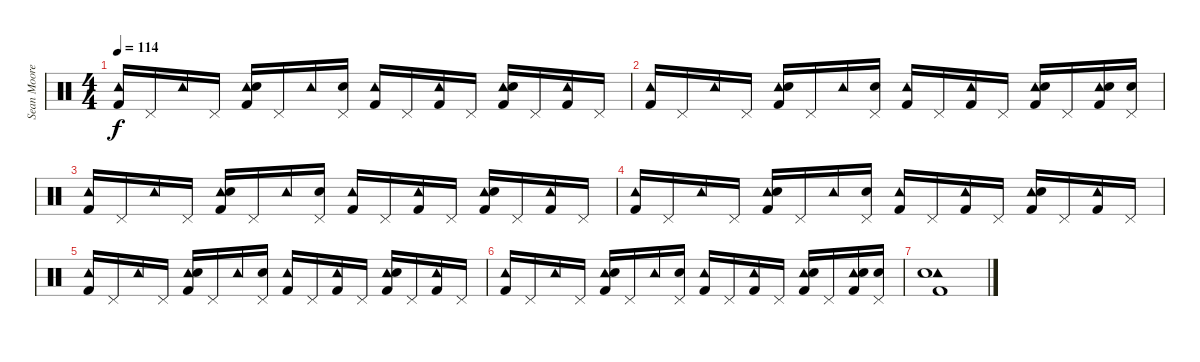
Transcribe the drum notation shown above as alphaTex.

\track ("Sean Moore" "Sean Moore") {instrument percussion}
\staff {score}
\articulation defaults
\ts (4 4)
\tempo 114
\clef neutral
\ks c
("Tambourine (hit)" "Kick (hit) 2").16{dy f} "Pedal Hi-Hat (hit)".16 "Tambourine (hit)".16 "Pedal Hi-Hat (hit)".16 ("Tambourine (hit)" "Snare (hit) 2" "Kick (hit) 2").16 "Pedal Hi-Hat (hit)".16 "Tambourine (hit)".16 ("Snare (hit) 2" "Pedal Hi-Hat (hit)").16 ("Tambourine (hit)" "Kick (hit) 2").16 "Pedal Hi-Hat (hit)".16 ("Tambourine (hit)" "Kick (hit) 2").16 "Pedal Hi-Hat (hit)".16 ("Tambourine (hit)" "Snare (hit) 2" "Kick (hit) 2").16 "Pedal Hi-Hat (hit)".16 ("Tambourine (hit)" "Kick (hit) 2").16 "Pedal Hi-Hat (hit)".16 |
("Tambourine (hit)" "Kick (hit) 2").16 "Pedal Hi-Hat (hit)".16 "Tambourine (hit)".16 "Pedal Hi-Hat (hit)".16 ("Tambourine (hit)" "Snare (hit) 2" "Kick (hit) 2").16 "Pedal Hi-Hat (hit)".16 "Tambourine (hit)".16 ("Snare (hit) 2" "Pedal Hi-Hat (hit)").16 ("Tambourine (hit)" "Kick (hit) 2").16 "Pedal Hi-Hat (hit)".16 ("Tambourine (hit)" "Kick (hit) 2").16 "Pedal Hi-Hat (hit)".16 ("Tambourine (hit)" "Snare (hit) 2" "Kick (hit) 2").16 "Pedal Hi-Hat (hit)".16 ("Tambourine (hit)" "Snare (hit) 2" "Kick (hit) 2").16 ("Snare (hit) 2" "Pedal Hi-Hat (hit)").16 |
("Tambourine (hit)" "Kick (hit) 2").16 "Pedal Hi-Hat (hit)".16 "Tambourine (hit)".16 "Pedal Hi-Hat (hit)".16 ("Tambourine (hit)" "Snare (hit) 2" "Kick (hit) 2").16 "Pedal Hi-Hat (hit)".16 "Tambourine (hit)".16 ("Snare (hit) 2" "Pedal Hi-Hat (hit)").16 ("Tambourine (hit)" "Kick (hit) 2").16 "Pedal Hi-Hat (hit)".16 ("Tambourine (hit)" "Kick (hit) 2").16 "Pedal Hi-Hat (hit)".16 ("Tambourine (hit)" "Snare (hit) 2" "Kick (hit) 2").16 "Pedal Hi-Hat (hit)".16 ("Tambourine (hit)" "Kick (hit) 2").16 "Pedal Hi-Hat (hit)".16 |
("Tambourine (hit)" "Kick (hit) 2").16 "Pedal Hi-Hat (hit)".16 "Tambourine (hit)".16 "Pedal Hi-Hat (hit)".16 ("Tambourine (hit)" "Snare (hit) 2" "Kick (hit) 2").16 "Pedal Hi-Hat (hit)".16 "Tambourine (hit)".16 ("Snare (hit) 2" "Pedal Hi-Hat (hit)").16 ("Tambourine (hit)" "Kick (hit) 2").16 "Pedal Hi-Hat (hit)".16 ("Tambourine (hit)" "Kick (hit) 2").16 "Pedal Hi-Hat (hit)".16 ("Tambourine (hit)" "Snare (hit) 2" "Kick (hit) 2").16 "Pedal Hi-Hat (hit)".16 ("Tambourine (hit)" "Kick (hit) 2").16 "Pedal Hi-Hat (hit)".16 |
("Tambourine (hit)" "Kick (hit) 2").16 "Pedal Hi-Hat (hit)".16 "Tambourine (hit)".16 "Pedal Hi-Hat (hit)".16 ("Tambourine (hit)" "Snare (hit) 2" "Kick (hit) 2").16 "Pedal Hi-Hat (hit)".16 "Tambourine (hit)".16 ("Snare (hit) 2" "Pedal Hi-Hat (hit)").16 ("Tambourine (hit)" "Kick (hit) 2").16 "Pedal Hi-Hat (hit)".16 ("Tambourine (hit)" "Kick (hit) 2").16 "Pedal Hi-Hat (hit)".16 ("Tambourine (hit)" "Snare (hit) 2" "Kick (hit) 2").16 "Pedal Hi-Hat (hit)".16 ("Tambourine (hit)" "Kick (hit) 2").16 "Pedal Hi-Hat (hit)".16 |
("Tambourine (hit)" "Kick (hit) 2").16 "Pedal Hi-Hat (hit)".16 "Tambourine (hit)".16 "Pedal Hi-Hat (hit)".16 ("Tambourine (hit)" "Snare (hit) 2" "Kick (hit) 2").16 "Pedal Hi-Hat (hit)".16 "Tambourine (hit)".16 ("Snare (hit) 2" "Pedal Hi-Hat (hit)").16 ("Tambourine (hit)" "Kick (hit) 2").16 "Pedal Hi-Hat (hit)".16 ("Tambourine (hit)" "Kick (hit) 2").16 "Pedal Hi-Hat (hit)".16 ("Tambourine (hit)" "Snare (hit) 2" "Kick (hit) 2").16 "Pedal Hi-Hat (hit)".16 ("Tambourine (hit)" "Snare (hit) 2" "Kick (hit) 2").16 ("Snare (hit) 2" "Pedal Hi-Hat (hit)").16 |
("Tambourine (hit)" "Snare (hit) 2" "Kick (hit) 2").1
